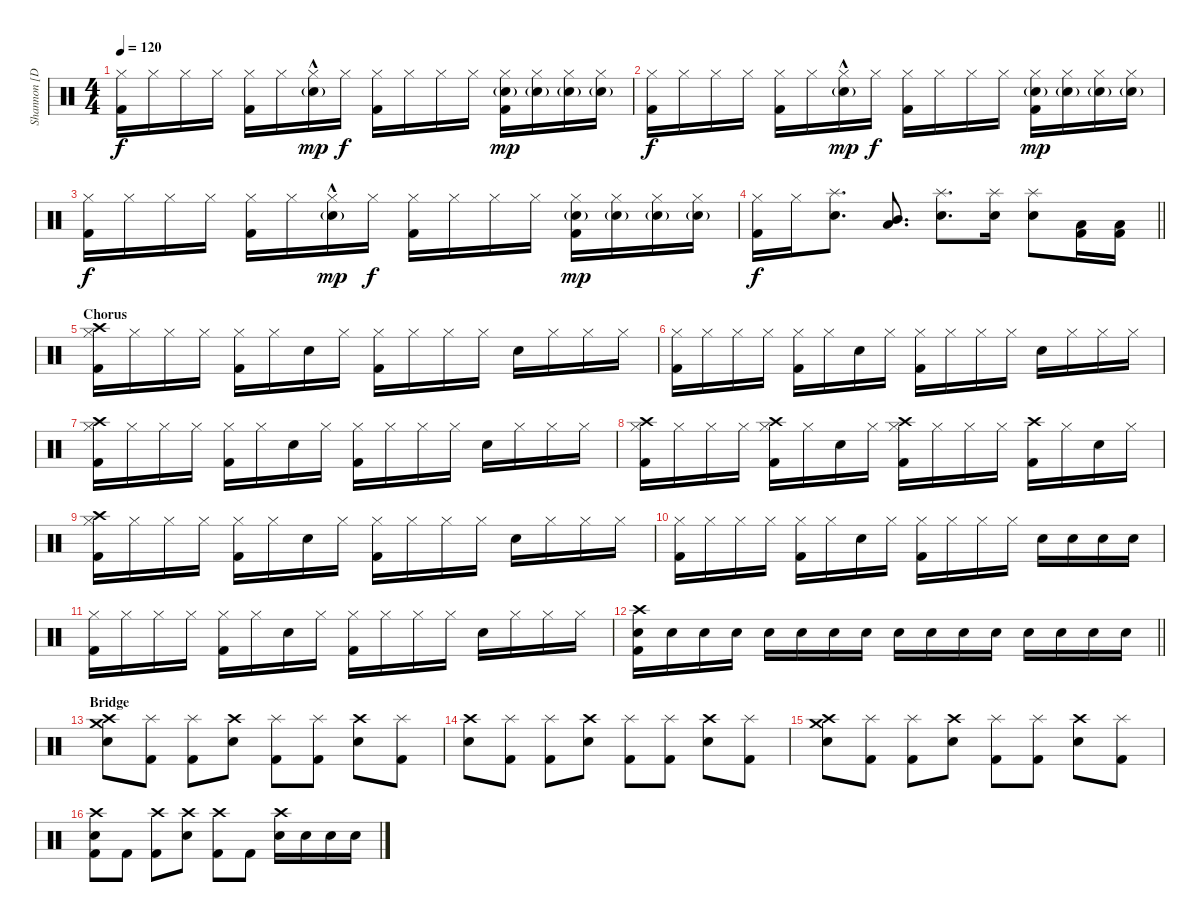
\track ("Shannon [Drums]" "Shannon [D") {instrument percussion}
\staff {score}
\articulation defaults
\ts (4 4)
\tempo 120
\clef neutral
\ks c
("Hi-Hat (closed)" "Kick (hit) 2").16{dy f} "Hi-Hat (closed)".16 "Hi-Hat (closed)".16 "Hi-Hat (closed)".16 ("Hi-Hat (closed)" "Kick (hit) 2").16 "Hi-Hat (closed)".16 ("Hi-Hat (closed)"{hac} "Snare (hit) 2"{g}).16{dy mp} "Hi-Hat (closed)".16{dy f} ("Hi-Hat (closed)" "Kick (hit) 2").16 "Hi-Hat (closed)".16 "Hi-Hat (closed)".16 "Hi-Hat (closed)".16 ("Hi-Hat (closed)" "Snare (hit) 2"{g} "Kick (hit) 2").16{dy mp} ("Hi-Hat (closed)" "Snare (hit) 2"{g}).16 ("Hi-Hat (closed)" "Snare (hit) 2"{g}).16 ("Hi-Hat (closed)" "Snare (hit) 2"{g}).16 |
("Hi-Hat (closed)" "Kick (hit) 2").16{dy f} "Hi-Hat (closed)".16 "Hi-Hat (closed)".16 "Hi-Hat (closed)".16 ("Hi-Hat (closed)" "Kick (hit) 2").16 "Hi-Hat (closed)".16 ("Hi-Hat (closed)"{hac} "Snare (hit) 2"{g}).16{dy mp} "Hi-Hat (closed)".16{dy f} ("Hi-Hat (closed)" "Kick (hit) 2").16 "Hi-Hat (closed)".16 "Hi-Hat (closed)".16 "Hi-Hat (closed)".16 ("Hi-Hat (closed)" "Snare (hit) 2"{g} "Kick (hit) 2").16{dy mp} ("Hi-Hat (closed)" "Snare (hit) 2"{g}).16 ("Hi-Hat (closed)" "Snare (hit) 2"{g}).16 ("Hi-Hat (closed)" "Snare (hit) 2"{g}).16 |
("Hi-Hat (closed)" "Kick (hit) 2").16{dy f} "Hi-Hat (closed)".16 "Hi-Hat (closed)".16 "Hi-Hat (closed)".16 ("Hi-Hat (closed)" "Kick (hit) 2").16 "Hi-Hat (closed)".16 ("Hi-Hat (closed)"{hac} "Snare (hit) 2"{g}).16{dy mp} "Hi-Hat (closed)".16{dy f} ("Hi-Hat (closed)" "Kick (hit) 2").16 "Hi-Hat (closed)".16 "Hi-Hat (closed)".16 "Hi-Hat (closed)".16 ("Hi-Hat (closed)" "Snare (hit) 2"{g} "Kick (hit) 2").16{dy mp} ("Hi-Hat (closed)" "Snare (hit) 2"{g}).16 ("Hi-Hat (closed)" "Snare (hit) 2"{g}).16 ("Hi-Hat (closed)" "Snare (hit) 2"{g}).16 |
\barLineRight lightlight
("Hi-Hat (closed)" "Kick (hit) 2").16{dy f} "Hi-Hat (closed)".16 ("Splash (hit)" "Electric Snare (hit)").8{d} ("Mid Tom (hit)" "Low Tom (hit)").8{d} ("Splash (hit)" "Electric Snare (hit)").8{d} ("Splash (hit)" "Electric Snare (hit)").16 ("Splash (hit)" "Electric Snare (hit)").8 ("Low Tom (hit)" "Kick (hit) 2").16 ("Low Tom (hit)" "Kick (hit) 2").16 |
\section ("" "Chorus")
("Crash high (hit)" "Hi-Hat (closed)" "Kick (hit) 2").16 "Hi-Hat (closed)".16 "Hi-Hat (closed)".16 "Hi-Hat (closed)".16 ("Hi-Hat (closed)" "Kick (hit) 2").16 "Hi-Hat (closed)".16 "Electric Snare (hit)".16 "Hi-Hat (closed)".16 ("Hi-Hat (closed)" "Kick (hit) 2").16 "Hi-Hat (closed)".16 "Hi-Hat (closed)".16 "Hi-Hat (closed)".16 "Electric Snare (hit)".16 "Hi-Hat (closed)".16 "Hi-Hat (closed)".16 "Hi-Hat (closed)".16 |
("Hi-Hat (closed)" "Kick (hit) 2").16 "Hi-Hat (closed)".16 "Hi-Hat (closed)".16 "Hi-Hat (closed)".16 ("Hi-Hat (closed)" "Kick (hit) 2").16 "Hi-Hat (closed)".16 "Electric Snare (hit)".16 "Hi-Hat (closed)".16 ("Hi-Hat (closed)" "Kick (hit) 2").16 "Hi-Hat (closed)".16 "Hi-Hat (closed)".16 "Hi-Hat (closed)".16 "Electric Snare (hit)".16 "Hi-Hat (closed)".16 "Hi-Hat (closed)".16 "Hi-Hat (closed)".16 |
("Crash high (hit)" "Hi-Hat (closed)" "Kick (hit) 2").16 "Hi-Hat (closed)".16 "Hi-Hat (closed)".16 "Hi-Hat (closed)".16 ("Hi-Hat (closed)" "Kick (hit) 2").16 "Hi-Hat (closed)".16 "Electric Snare (hit)".16 "Hi-Hat (closed)".16 ("Hi-Hat (closed)" "Kick (hit) 2").16 "Hi-Hat (closed)".16 "Hi-Hat (closed)".16 "Hi-Hat (closed)".16 "Electric Snare (hit)".16 "Hi-Hat (closed)".16 "Hi-Hat (closed)".16 "Hi-Hat (closed)".16 |
("Crash high (hit)" "Hi-Hat (closed)" "Kick (hit) 2").16 "Hi-Hat (closed)".16 "Hi-Hat (closed)".16 "Hi-Hat (closed)".16 ("Crash high (hit)" "Hi-Hat (closed)" "Kick (hit) 2").16 "Hi-Hat (closed)".16 "Electric Snare (hit)".16 "Hi-Hat (closed)".16 ("Crash high (hit)" "Hi-Hat (closed)" "Kick (hit) 2").16 "Hi-Hat (closed)".16 "Hi-Hat (closed)".16 "Hi-Hat (closed)".16 ("Crash high (hit)" "Kick (hit) 2").16 "Hi-Hat (closed)".16 "Electric Snare (hit)".16 "Hi-Hat (closed)".16 |
("Crash high (hit)" "Hi-Hat (closed)" "Kick (hit) 2").16 "Hi-Hat (closed)".16 "Hi-Hat (closed)".16 "Hi-Hat (closed)".16 ("Hi-Hat (closed)" "Kick (hit) 2").16 "Hi-Hat (closed)".16 "Electric Snare (hit)".16 "Hi-Hat (closed)".16 ("Hi-Hat (closed)" "Kick (hit) 2").16 "Hi-Hat (closed)".16 "Hi-Hat (closed)".16 "Hi-Hat (closed)".16 "Electric Snare (hit)".16 "Hi-Hat (closed)".16 "Hi-Hat (closed)".16 "Hi-Hat (closed)".16 |
("Hi-Hat (closed)" "Kick (hit) 2").16 "Hi-Hat (closed)".16 "Hi-Hat (closed)".16 "Hi-Hat (closed)".16 ("Hi-Hat (closed)" "Kick (hit) 2").16 "Hi-Hat (closed)".16 "Electric Snare (hit)".16 "Hi-Hat (closed)".16 ("Hi-Hat (closed)" "Kick (hit) 2").16 "Hi-Hat (closed)".16 "Hi-Hat (closed)".16 "Hi-Hat (closed)".16 "Electric Snare (hit)".16 "Electric Snare (hit)".16 "Electric Snare (hit)".16 "Electric Snare (hit)".16 |
("Hi-Hat (closed)" "Kick (hit) 2").16 "Hi-Hat (closed)".16 "Hi-Hat (closed)".16 "Hi-Hat (closed)".16 ("Hi-Hat (closed)" "Kick (hit) 2").16 "Hi-Hat (closed)".16 "Electric Snare (hit)".16 "Hi-Hat (closed)".16 ("Hi-Hat (closed)" "Kick (hit) 2").16 "Hi-Hat (closed)".16 "Hi-Hat (closed)".16 "Hi-Hat (closed)".16 "Electric Snare (hit)".16 "Hi-Hat (closed)".16 "Hi-Hat (closed)".16 "Hi-Hat (closed)".16 |
\barLineRight lightlight
("Crash high (hit)" "Electric Snare (hit)" "Kick (hit) 2").16 "Electric Snare (hit)".16 "Electric Snare (hit)".16 "Electric Snare (hit)".16 "Electric Snare (hit)".16 "Electric Snare (hit)".16 "Electric Snare (hit)".16 "Electric Snare (hit)".16 "Electric Snare (hit)".16 "Electric Snare (hit)".16 "Electric Snare (hit)".16 "Electric Snare (hit)".16 "Electric Snare (hit)".16 "Electric Snare (hit)".16 "Electric Snare (hit)".16 "Electric Snare (hit)".16 |
\section ("" "Bridge")
("Crash high (hit)" "Crash medium (hit)" "Electric Snare (hit)").8 ("Splash (hit)" "Kick (hit) 2").8 ("Splash (hit)" "Kick (hit) 2").8 ("Crash high (hit)" "Electric Snare (hit)").8 ("Splash (hit)" "Kick (hit) 2").8 ("Splash (hit)" "Kick (hit) 2").8 ("Crash high (hit)" "Electric Snare (hit)").8 ("Splash (hit)" "Kick (hit) 2").8 |
("Crash high (hit)" "Electric Snare (hit)").8 ("Splash (hit)" "Kick (hit) 2").8 ("Splash (hit)" "Kick (hit) 2").8 ("Crash high (hit)" "Electric Snare (hit)").8 ("Splash (hit)" "Kick (hit) 2").8 ("Splash (hit)" "Kick (hit) 2").8 ("Crash high (hit)" "Electric Snare (hit)").8 ("Splash (hit)" "Kick (hit) 2").8 |
("Crash high (hit)" "Crash medium (hit)" "Electric Snare (hit)").8 ("Splash (hit)" "Kick (hit) 2").8 ("Splash (hit)" "Kick (hit) 2").8 ("Crash high (hit)" "Electric Snare (hit)").8 ("Splash (hit)" "Kick (hit) 2").8 ("Splash (hit)" "Kick (hit) 2").8 ("Crash high (hit)" "Electric Snare (hit)").8 ("Splash (hit)" "Kick (hit) 2").8 |
("Crash high (hit)" "Electric Snare (hit)" "Kick (hit) 2").8 "Kick (hit) 2".8 ("Crash high (hit)" "Kick (hit) 2").8 ("Crash high (hit)" "Electric Snare (hit)").8 ("Crash high (hit)" "Kick (hit) 2").8 "Kick (hit) 2".8 ("Crash high (hit)" "Electric Snare (hit)").16 "Electric Snare (hit)".16 "Electric Snare (hit)".16 "Electric Snare (hit)".16
